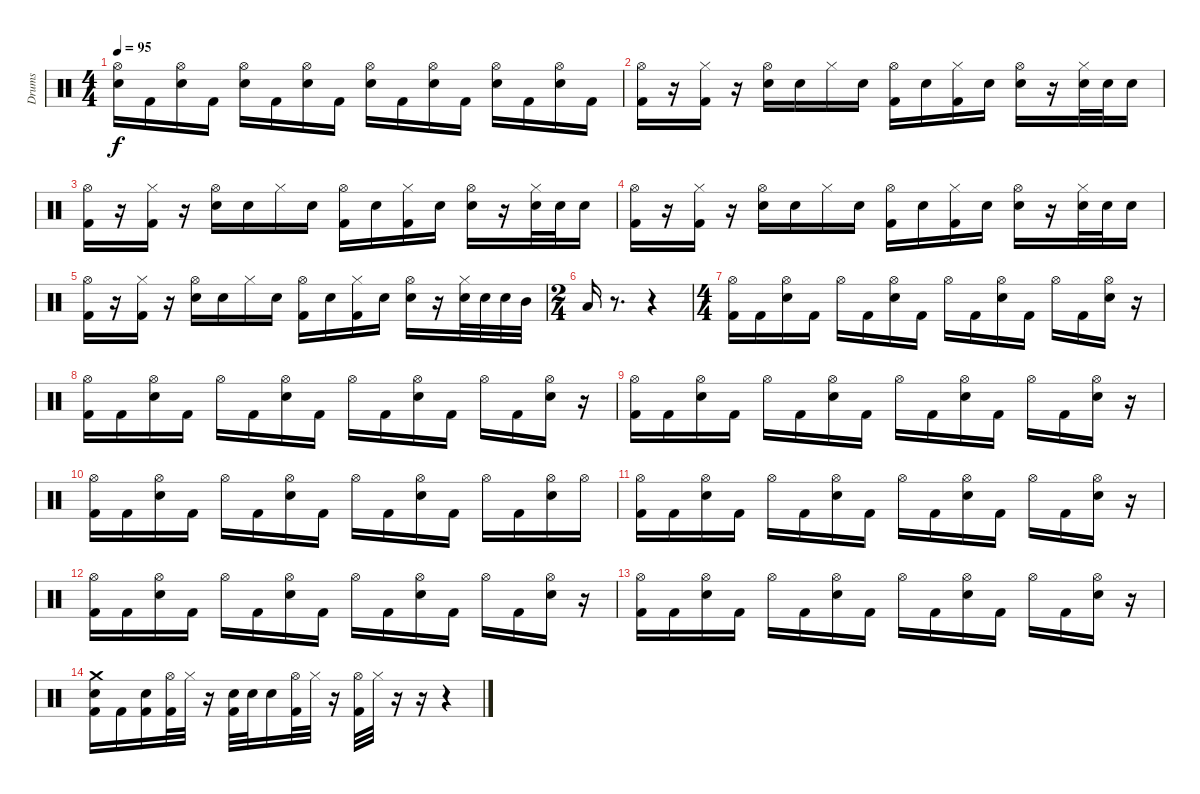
\track ("Drums" "Drums") {instrument percussion}
\staff {score}
\articulation defaults
\ts (4 4)
\tempo 95
\clef neutral
\ks c
("Hi-Hat (open)" "Electric Snare (hit)").16{dy f} "Kick (hit) 2".16 ("Hi-Hat (open)" "Electric Snare (hit)").16 "Kick (hit) 2".16 ("Hi-Hat (open)" "Electric Snare (hit)").16 "Kick (hit) 2".16 ("Hi-Hat (open)" "Electric Snare (hit)").16 "Kick (hit) 2".16 ("Hi-Hat (open)" "Electric Snare (hit)").16 "Kick (hit) 2".16 ("Hi-Hat (open)" "Electric Snare (hit)").16 "Kick (hit) 2".16 ("Hi-Hat (open)" "Electric Snare (hit)").16 "Kick (hit) 2".16 ("Hi-Hat (open)" "Electric Snare (hit)").16 "Kick (hit) 2".16 |
("Hi-Hat (open)" "Kick (hit) 2").16 r.16 ("Hi-Hat (closed)" "Kick (hit) 2").16 r.16 ("Hi-Hat (open)" "Electric Snare (hit)").16 "Electric Snare (hit)".16 "Hi-Hat (closed)".16 "Electric Snare (hit)".16 ("Hi-Hat (open)" "Kick (hit) 2").16 "Electric Snare (hit)".16 ("Hi-Hat (closed)" "Kick (hit) 2").16 "Electric Snare (hit)".16 ("Hi-Hat (open)" "Electric Snare (hit)").16 r.16 ("Hi-Hat (closed)" "Electric Snare (hit)").32 "Electric Snare (hit)".32 "Electric Snare (hit)".16 |
("Hi-Hat (open)" "Kick (hit) 2").16 r.16 ("Hi-Hat (closed)" "Kick (hit) 2").16 r.16 ("Hi-Hat (open)" "Electric Snare (hit)").16 "Electric Snare (hit)".16 "Hi-Hat (closed)".16 "Electric Snare (hit)".16 ("Hi-Hat (open)" "Kick (hit) 2").16 "Electric Snare (hit)".16 ("Hi-Hat (closed)" "Kick (hit) 2").16 "Electric Snare (hit)".16 ("Hi-Hat (open)" "Electric Snare (hit)").16 r.16 ("Hi-Hat (closed)" "Electric Snare (hit)").32 "Electric Snare (hit)".32 "Electric Snare (hit)".16 |
("Hi-Hat (open)" "Kick (hit) 2").16 r.16 ("Hi-Hat (closed)" "Kick (hit) 2").16 r.16 ("Hi-Hat (open)" "Electric Snare (hit)").16 "Electric Snare (hit)".16 "Hi-Hat (closed)".16 "Electric Snare (hit)".16 ("Hi-Hat (open)" "Kick (hit) 2").16 "Electric Snare (hit)".16 ("Hi-Hat (closed)" "Kick (hit) 2").16 "Electric Snare (hit)".16 ("Hi-Hat (open)" "Electric Snare (hit)").16 r.16 ("Hi-Hat (closed)" "Electric Snare (hit)").32 "Electric Snare (hit)".32 "Electric Snare (hit)".16 |
("Hi-Hat (open)" "Kick (hit) 2").16 r.16 ("Hi-Hat (closed)" "Kick (hit) 2").16 r.16 ("Hi-Hat (open)" "Electric Snare (hit)").16 "Electric Snare (hit)".16 "Hi-Hat (closed)".16 "Electric Snare (hit)".16 ("Hi-Hat (open)" "Kick (hit) 2").16 "Electric Snare (hit)".16 ("Hi-Hat (closed)" "Kick (hit) 2").16 "Electric Snare (hit)".16 ("Hi-Hat (open)" "Electric Snare (hit)").16 r.16 ("Hi-Hat (closed)" "Electric Snare (hit)").32 "Electric Snare (hit)".32 "Electric Snare (hit)".32 "Mid Tom (hit)".32 |
\ts (2 4)
"Low Tom (hit)".16 r.8{d} r.4 |
\ts (4 4)
("Hi-Hat (open)" "Kick (hit) 2").16 "Kick (hit) 2".16 ("Hi-Hat (open)" "Electric Snare (hit)").16 "Kick (hit) 2".16 "Hi-Hat (open)".16 "Kick (hit) 2".16 ("Hi-Hat (open)" "Electric Snare (hit)").16 "Kick (hit) 2".16 "Hi-Hat (open)".16 "Kick (hit) 2".16 ("Hi-Hat (open)" "Electric Snare (hit)").16 "Kick (hit) 2".16 "Hi-Hat (open)".16 "Kick (hit) 2".16 ("Hi-Hat (open)" "Electric Snare (hit)").16 r.16 |
("Hi-Hat (open)" "Kick (hit) 2").16 "Kick (hit) 2".16 ("Hi-Hat (open)" "Electric Snare (hit)").16 "Kick (hit) 2".16 "Hi-Hat (open)".16 "Kick (hit) 2".16 ("Hi-Hat (open)" "Electric Snare (hit)").16 "Kick (hit) 2".16 "Hi-Hat (open)".16 "Kick (hit) 2".16 ("Hi-Hat (open)" "Electric Snare (hit)").16 "Kick (hit) 2".16 "Hi-Hat (open)".16 "Kick (hit) 2".16 ("Hi-Hat (open)" "Electric Snare (hit)").16 r.16 |
("Hi-Hat (open)" "Kick (hit) 2").16 "Kick (hit) 2".16 ("Hi-Hat (open)" "Electric Snare (hit)").16 "Kick (hit) 2".16 "Hi-Hat (open)".16 "Kick (hit) 2".16 ("Hi-Hat (open)" "Electric Snare (hit)").16 "Kick (hit) 2".16 "Hi-Hat (open)".16 "Kick (hit) 2".16 ("Hi-Hat (open)" "Electric Snare (hit)").16 "Kick (hit) 2".16 "Hi-Hat (open)".16 "Kick (hit) 2".16 ("Hi-Hat (open)" "Electric Snare (hit)").16 r.16 |
("Hi-Hat (open)" "Kick (hit) 2").16 "Kick (hit) 2".16 ("Hi-Hat (open)" "Electric Snare (hit)").16 "Kick (hit) 2".16 "Hi-Hat (open)".16 "Kick (hit) 2".16 ("Hi-Hat (open)" "Electric Snare (hit)").16 "Kick (hit) 2".16 "Hi-Hat (open)".16 "Kick (hit) 2".16 ("Hi-Hat (open)" "Electric Snare (hit)").16 "Kick (hit) 2".16 "Hi-Hat (open)".16 "Kick (hit) 2".16 ("Hi-Hat (open)" "Electric Snare (hit)").16 "Hi-Hat (open)".16 |
("Hi-Hat (open)" "Kick (hit) 2").16 "Kick (hit) 2".16 ("Hi-Hat (open)" "Electric Snare (hit)").16 "Kick (hit) 2".16 "Hi-Hat (open)".16 "Kick (hit) 2".16 ("Hi-Hat (open)" "Electric Snare (hit)").16 "Kick (hit) 2".16 "Hi-Hat (open)".16 "Kick (hit) 2".16 ("Hi-Hat (open)" "Electric Snare (hit)").16 "Kick (hit) 2".16 "Hi-Hat (open)".16 "Kick (hit) 2".16 ("Hi-Hat (open)" "Electric Snare (hit)").16 r.16 |
("Hi-Hat (open)" "Kick (hit) 2").16 "Kick (hit) 2".16 ("Hi-Hat (open)" "Electric Snare (hit)").16 "Kick (hit) 2".16 "Hi-Hat (open)".16 "Kick (hit) 2".16 ("Hi-Hat (open)" "Electric Snare (hit)").16 "Kick (hit) 2".16 "Hi-Hat (open)".16 "Kick (hit) 2".16 ("Hi-Hat (open)" "Electric Snare (hit)").16 "Kick (hit) 2".16 "Hi-Hat (open)".16 "Kick (hit) 2".16 ("Hi-Hat (open)" "Electric Snare (hit)").16 r.16 |
("Hi-Hat (open)" "Kick (hit) 2").16 "Kick (hit) 2".16 ("Hi-Hat (open)" "Electric Snare (hit)").16 "Kick (hit) 2".16 "Hi-Hat (open)".16 "Kick (hit) 2".16 ("Hi-Hat (open)" "Electric Snare (hit)").16 "Kick (hit) 2".16 "Hi-Hat (open)".16 "Kick (hit) 2".16 ("Hi-Hat (open)" "Electric Snare (hit)").16 "Kick (hit) 2".16 "Hi-Hat (open)".16 "Kick (hit) 2".16 ("Hi-Hat (open)" "Electric Snare (hit)").16 r.16 |
("Crash medium (hit)" "Electric Snare (hit)" "Kick (hit) 2").16 "Kick (hit) 2".16 ("Electric Snare (hit)" "Kick (hit) 2").16 ("Hi-Hat (open)" "Kick (hit) 2").32 "Hi-Hat (closed)".32 r.16 ("Electric Snare (hit)" "Kick (hit) 2").32 "Electric Snare (hit)".32 "Electric Snare (hit)".16 ("Hi-Hat (open)" "Kick (hit) 2").32 "Hi-Hat (closed)".32 r.16 ("Hi-Hat (open)" "Kick (hit) 2").32 "Hi-Hat (closed)".32 r.16 r.16 r.4
